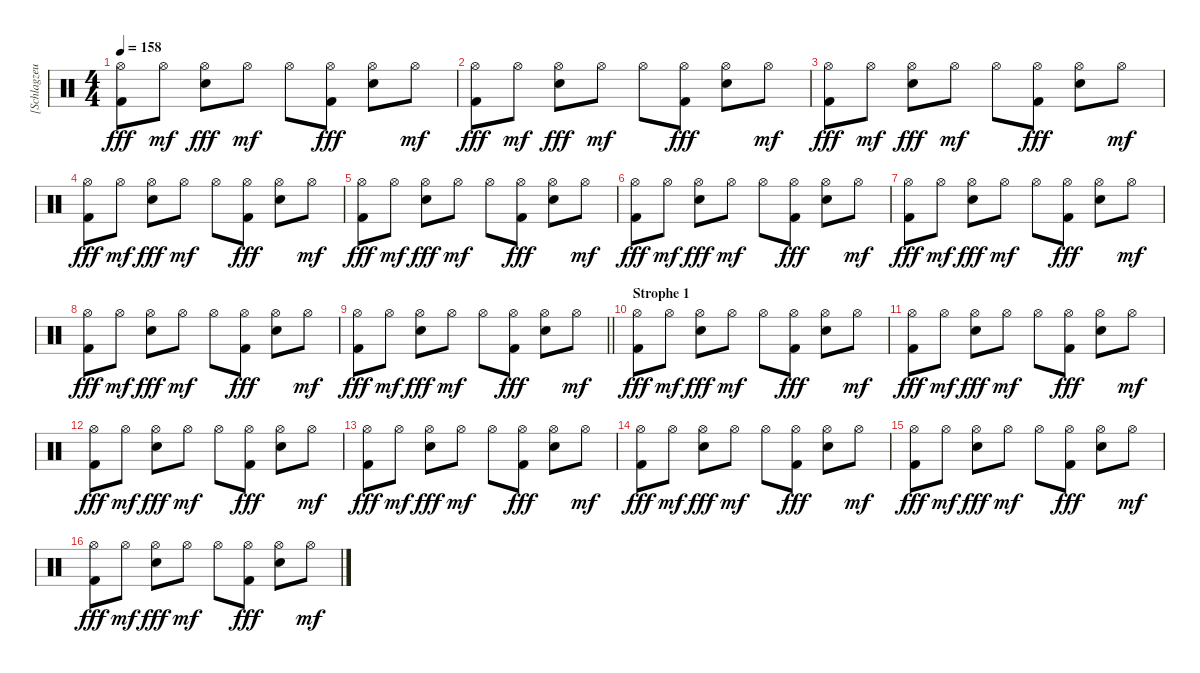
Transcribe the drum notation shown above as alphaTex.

\track ("[Schlagzeug]" "[Schlagzeu") {instrument percussion}
\staff {score}
\articulation defaults
\ts (4 4)
\tempo 158
\clef neutral
\ks c
("Hi-Hat (open)" "Kick (hit) 2").8{dy fff} "Hi-Hat (open)".8{dy mf} ("Hi-Hat (open)" "Electric Snare (hit)").8{dy fff} "Hi-Hat (open)".8{dy mf} "Hi-Hat (open)".8 ("Hi-Hat (open)" "Kick (hit) 2").8{dy fff} ("Hi-Hat (open)" "Electric Snare (hit)").8 "Hi-Hat (open)".8{dy mf} |
("Hi-Hat (open)" "Kick (hit) 2").8{dy fff} "Hi-Hat (open)".8{dy mf} ("Hi-Hat (open)" "Electric Snare (hit)").8{dy fff} "Hi-Hat (open)".8{dy mf} "Hi-Hat (open)".8 ("Hi-Hat (open)" "Kick (hit) 2").8{dy fff} ("Hi-Hat (open)" "Electric Snare (hit)").8 "Hi-Hat (open)".8{dy mf} |
("Hi-Hat (open)" "Kick (hit) 2").8{dy fff} "Hi-Hat (open)".8{dy mf} ("Hi-Hat (open)" "Electric Snare (hit)").8{dy fff} "Hi-Hat (open)".8{dy mf} "Hi-Hat (open)".8 ("Hi-Hat (open)" "Kick (hit) 2").8{dy fff} ("Hi-Hat (open)" "Electric Snare (hit)").8 "Hi-Hat (open)".8{dy mf} |
("Hi-Hat (open)" "Kick (hit) 2").8{dy fff} "Hi-Hat (open)".8{dy mf} ("Hi-Hat (open)" "Electric Snare (hit)").8{dy fff} "Hi-Hat (open)".8{dy mf} "Hi-Hat (open)".8 ("Hi-Hat (open)" "Kick (hit) 2").8{dy fff} ("Hi-Hat (open)" "Electric Snare (hit)").8 "Hi-Hat (open)".8{dy mf} |
("Hi-Hat (open)" "Kick (hit) 2").8{dy fff} "Hi-Hat (open)".8{dy mf} ("Hi-Hat (open)" "Electric Snare (hit)").8{dy fff} "Hi-Hat (open)".8{dy mf} "Hi-Hat (open)".8 ("Hi-Hat (open)" "Kick (hit) 2").8{dy fff} ("Hi-Hat (open)" "Electric Snare (hit)").8 "Hi-Hat (open)".8{dy mf} |
("Hi-Hat (open)" "Kick (hit) 2").8{dy fff} "Hi-Hat (open)".8{dy mf} ("Hi-Hat (open)" "Electric Snare (hit)").8{dy fff} "Hi-Hat (open)".8{dy mf} "Hi-Hat (open)".8 ("Hi-Hat (open)" "Kick (hit) 2").8{dy fff} ("Hi-Hat (open)" "Electric Snare (hit)").8 "Hi-Hat (open)".8{dy mf} |
("Hi-Hat (open)" "Kick (hit) 2").8{dy fff} "Hi-Hat (open)".8{dy mf} ("Hi-Hat (open)" "Electric Snare (hit)").8{dy fff} "Hi-Hat (open)".8{dy mf} "Hi-Hat (open)".8 ("Hi-Hat (open)" "Kick (hit) 2").8{dy fff} ("Hi-Hat (open)" "Electric Snare (hit)").8 "Hi-Hat (open)".8{dy mf} |
("Hi-Hat (open)" "Kick (hit) 2").8{dy fff} "Hi-Hat (open)".8{dy mf} ("Hi-Hat (open)" "Electric Snare (hit)").8{dy fff} "Hi-Hat (open)".8{dy mf} "Hi-Hat (open)".8 ("Hi-Hat (open)" "Kick (hit) 2").8{dy fff} ("Hi-Hat (open)" "Electric Snare (hit)").8 "Hi-Hat (open)".8{dy mf} |
\barLineRight lightlight
("Hi-Hat (open)" "Kick (hit) 2").8{dy fff} "Hi-Hat (open)".8{dy mf} ("Hi-Hat (open)" "Electric Snare (hit)").8{dy fff} "Hi-Hat (open)".8{dy mf} "Hi-Hat (open)".8 ("Hi-Hat (open)" "Kick (hit) 2").8{dy fff} ("Hi-Hat (open)" "Electric Snare (hit)").8 "Hi-Hat (open)".8{dy mf} |
\section ("" "Strophe 1")
("Hi-Hat (open)" "Kick (hit) 2").8{dy fff} "Hi-Hat (open)".8{dy mf} ("Hi-Hat (open)" "Electric Snare (hit)").8{dy fff} "Hi-Hat (open)".8{dy mf} "Hi-Hat (open)".8 ("Hi-Hat (open)" "Kick (hit) 2").8{dy fff} ("Hi-Hat (open)" "Electric Snare (hit)").8 "Hi-Hat (open)".8{dy mf} |
("Hi-Hat (open)" "Kick (hit) 2").8{dy fff} "Hi-Hat (open)".8{dy mf} ("Hi-Hat (open)" "Electric Snare (hit)").8{dy fff} "Hi-Hat (open)".8{dy mf} "Hi-Hat (open)".8 ("Hi-Hat (open)" "Kick (hit) 2").8{dy fff} ("Hi-Hat (open)" "Electric Snare (hit)").8 "Hi-Hat (open)".8{dy mf} |
("Hi-Hat (open)" "Kick (hit) 2").8{dy fff} "Hi-Hat (open)".8{dy mf} ("Hi-Hat (open)" "Electric Snare (hit)").8{dy fff} "Hi-Hat (open)".8{dy mf} "Hi-Hat (open)".8 ("Hi-Hat (open)" "Kick (hit) 2").8{dy fff} ("Hi-Hat (open)" "Electric Snare (hit)").8 "Hi-Hat (open)".8{dy mf} |
("Hi-Hat (open)" "Kick (hit) 2").8{dy fff} "Hi-Hat (open)".8{dy mf} ("Hi-Hat (open)" "Electric Snare (hit)").8{dy fff} "Hi-Hat (open)".8{dy mf} "Hi-Hat (open)".8 ("Hi-Hat (open)" "Kick (hit) 2").8{dy fff} ("Hi-Hat (open)" "Electric Snare (hit)").8 "Hi-Hat (open)".8{dy mf} |
("Hi-Hat (open)" "Kick (hit) 2").8{dy fff} "Hi-Hat (open)".8{dy mf} ("Hi-Hat (open)" "Electric Snare (hit)").8{dy fff} "Hi-Hat (open)".8{dy mf} "Hi-Hat (open)".8 ("Hi-Hat (open)" "Kick (hit) 2").8{dy fff} ("Hi-Hat (open)" "Electric Snare (hit)").8 "Hi-Hat (open)".8{dy mf} |
("Hi-Hat (open)" "Kick (hit) 2").8{dy fff} "Hi-Hat (open)".8{dy mf} ("Hi-Hat (open)" "Electric Snare (hit)").8{dy fff} "Hi-Hat (open)".8{dy mf} "Hi-Hat (open)".8 ("Hi-Hat (open)" "Kick (hit) 2").8{dy fff} ("Hi-Hat (open)" "Electric Snare (hit)").8 "Hi-Hat (open)".8{dy mf} |
("Hi-Hat (open)" "Kick (hit) 2").8{dy fff} "Hi-Hat (open)".8{dy mf} ("Hi-Hat (open)" "Electric Snare (hit)").8{dy fff} "Hi-Hat (open)".8{dy mf} "Hi-Hat (open)".8 ("Hi-Hat (open)" "Kick (hit) 2").8{dy fff} ("Hi-Hat (open)" "Electric Snare (hit)").8 "Hi-Hat (open)".8{dy mf}
